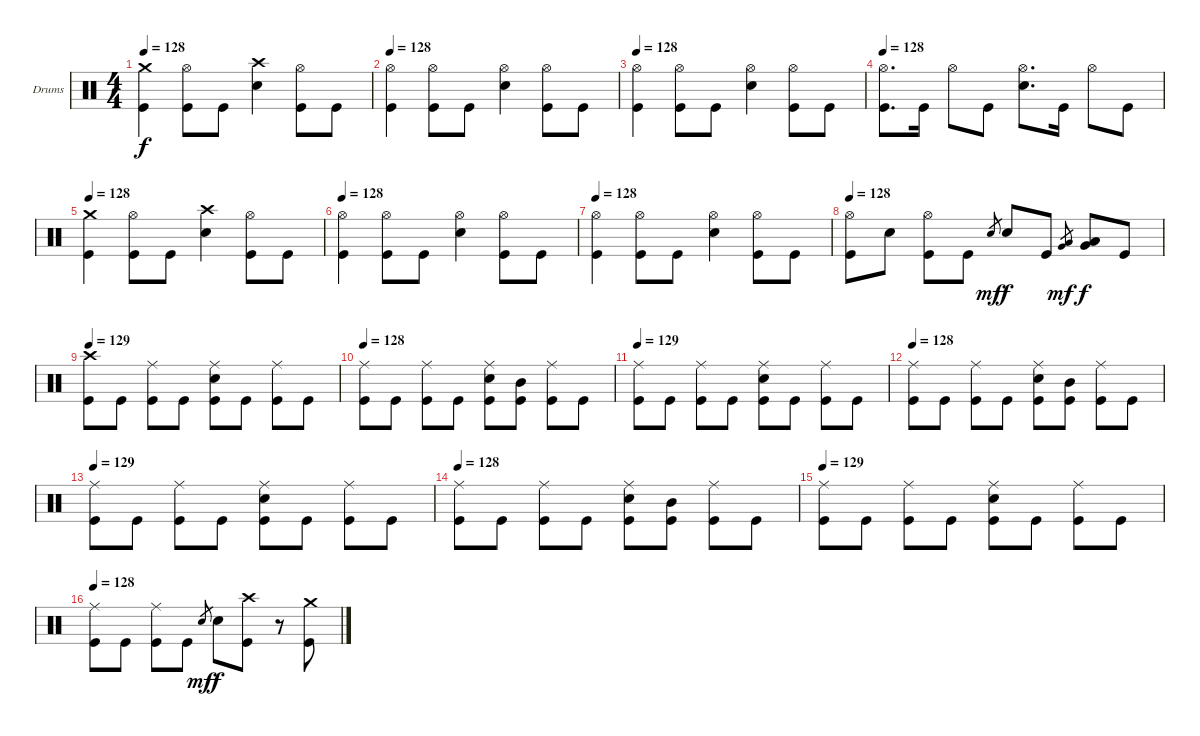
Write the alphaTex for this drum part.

\bracketExtendMode groupsimilarinstruments
\firstSystemTrackNameOrientation horizontal
\otherSystemsTrackNameOrientation horizontal
\track ("Drumkit" "Drums") {instrument percussion}
\staff {score}
\articulation defaults
\ts (4 4)
\tempo 128
\clef neutral
\ks c
("Crash medium (hit)" "Kick (hit)").4{dy f} ("Hi-Hat (open)" "Kick (hit)").8 "Kick (hit)".8 ("Crash high (hit)" "Snare (hit) 2").4 ("Hi-Hat (open)" "Kick (hit)").8 "Kick (hit)".8 |
\tempo 128
("Hi-Hat (open)" "Kick (hit)").4 ("Hi-Hat (open)" "Kick (hit)").8 "Kick (hit)".8 ("Hi-Hat (open)" "Snare (hit) 2").4 ("Hi-Hat (open)" "Kick (hit)").8 "Kick (hit)".8 |
\tempo 128
("Hi-Hat (open)" "Kick (hit)").4 ("Hi-Hat (open)" "Kick (hit)").8 "Kick (hit)".8 ("Hi-Hat (open)" "Snare (hit) 2").4 ("Hi-Hat (open)" "Kick (hit)").8 "Kick (hit)".8 |
\tempo 128
("Hi-Hat (open)" "Kick (hit)").8{d} "Kick (hit)".16 "Hi-Hat (open)".8 "Kick (hit)".8 ("Snare (hit) 2" "Hi-Hat (open)").8{d} "Kick (hit)".16 "Hi-Hat (open)".8 "Kick (hit)".8 |
\tempo 128
("Crash medium (hit)" "Kick (hit)").4 ("Hi-Hat (open)" "Kick (hit)").8 "Kick (hit)".8 ("Crash high (hit)" "Snare (hit) 2").4 ("Hi-Hat (open)" "Kick (hit)").8 "Kick (hit)".8 |
\tempo 128
("Hi-Hat (open)" "Kick (hit)").4 ("Hi-Hat (open)" "Kick (hit)").8 "Kick (hit)".8 ("Hi-Hat (open)" "Snare (hit) 2").4 ("Hi-Hat (open)" "Kick (hit)").8 "Kick (hit)".8 |
\tempo 128
("Hi-Hat (open)" "Kick (hit)").4 ("Hi-Hat (open)" "Kick (hit)").8 "Kick (hit)".8 ("Hi-Hat (open)" "Snare (hit) 2").4 ("Hi-Hat (open)" "Kick (hit)").8 "Kick (hit)".8 |
\tempo 128
("Hi-Hat (open)" "Kick (hit)").8 "Snare (hit) 2".8 ("Kick (hit)" "Hi-Hat (open)").8 "Kick (hit)".8 "Snare (hit) 2".8{gr dy mf} "Snare (hit) 2".8{dy f} "Kick (hit)".8 ("Very Low Tom (hit)" "Low Tom (hit)").8{gr dy mf} ("Very Low Tom (hit)" "Low Tom (hit)").8{dy f} "Kick (hit)".8 |
\tempo 129
("Crash high (hit)" "Kick (hit)").8 "Kick (hit)".8 ("Ride (middle)" "Kick (hit)").8 "Kick (hit)".8 ("Ride (middle)" "Snare (hit) 2" "Kick (hit)").8 "Kick (hit)".8 ("Ride (middle)" "Kick (hit)").8 "Kick (hit)".8 |
\tempo 128
("Ride (middle)" "Kick (hit)").8 "Kick (hit)".8 ("Ride (middle)" "Kick (hit)").8 "Kick (hit)".8 ("Ride (middle)" "Snare (hit) 2" "Kick (hit)").8 ("Mid Tom (hit)" "Kick (hit)").8 ("Ride (middle)" "Kick (hit)").8 "Kick (hit)".8 |
\tempo 129
("Ride (middle)" "Kick (hit)").8 "Kick (hit)".8 ("Ride (middle)" "Kick (hit)").8 "Kick (hit)".8 ("Ride (middle)" "Snare (hit) 2" "Kick (hit)").8 "Kick (hit)".8 ("Ride (middle)" "Kick (hit)").8 "Kick (hit)".8 |
\tempo 128
("Ride (middle)" "Kick (hit)").8 "Kick (hit)".8 ("Ride (middle)" "Kick (hit)").8 "Kick (hit)".8 ("Ride (middle)" "Snare (hit) 2" "Kick (hit)").8 ("Mid Tom (hit)" "Kick (hit)").8 ("Ride (middle)" "Kick (hit)").8 "Kick (hit)".8 |
\tempo 129
("Ride (middle)" "Kick (hit)").8 "Kick (hit)".8 ("Ride (middle)" "Kick (hit)").8 "Kick (hit)".8 ("Ride (middle)" "Snare (hit) 2" "Kick (hit)").8 "Kick (hit)".8 ("Ride (middle)" "Kick (hit)").8 "Kick (hit)".8 |
\tempo 128
("Ride (middle)" "Kick (hit)").8 "Kick (hit)".8 ("Ride (middle)" "Kick (hit)").8 "Kick (hit)".8 ("Ride (middle)" "Snare (hit) 2" "Kick (hit)").8 ("Mid Tom (hit)" "Kick (hit)").8 ("Ride (middle)" "Kick (hit)").8 "Kick (hit)".8 |
\tempo 129
("Ride (middle)" "Kick (hit)").8 "Kick (hit)".8 ("Ride (middle)" "Kick (hit)").8 "Kick (hit)".8 ("Ride (middle)" "Snare (hit) 2" "Kick (hit)").8 "Kick (hit)".8 ("Ride (middle)" "Kick (hit)").8 "Kick (hit)".8 |
\tempo 128
("Ride (middle)" "Kick (hit)").8 "Kick (hit)".8 ("Ride (middle)" "Kick (hit)").8 "Kick (hit)".8 "Snare (hit) 2".8{gr dy mf} "Snare (hit) 2".8{dy f} ("Crash high (hit)" "Kick (hit)").8 r.8 ("Crash medium (hit)" "Kick (hit)").8
